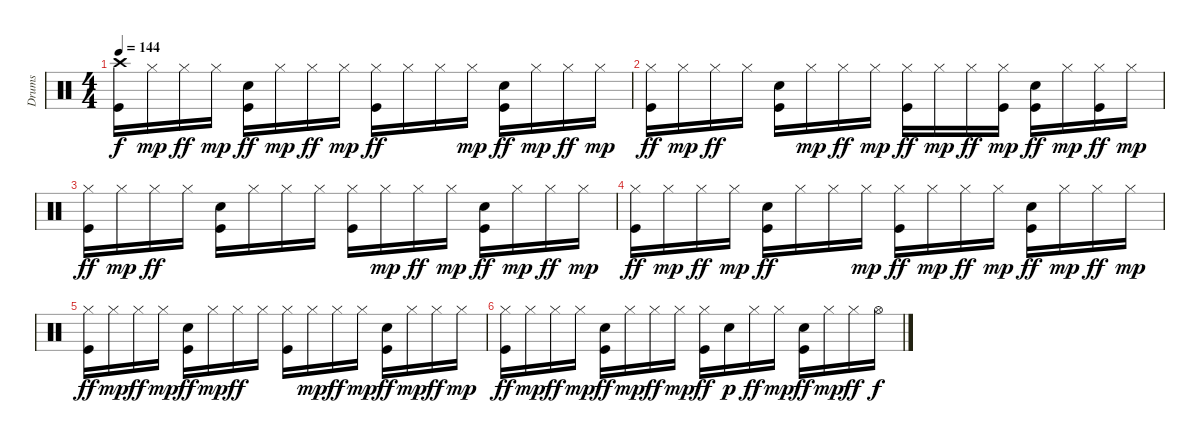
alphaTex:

\track ("Drums" "Drums") {instrument percussion}
\staff {score}
\articulation defaults
\ts (4 4)
\tempo 144
\clef neutral
\ks c
("Kick (hit)" "Crash high (hit)").16{dy f} "Hi-Hat (closed)".16{dy mp} "Hi-Hat (closed)".16{dy ff} "Hi-Hat (closed)".16{dy mp} ("Kick (hit)" "Snare (hit) 2").16{dy ff} "Hi-Hat (closed)".16{dy mp} "Hi-Hat (closed)".16{dy ff} "Hi-Hat (closed)".16{dy mp} ("Kick (hit)" "Hi-Hat (closed)").16{dy ff} "Hi-Hat (closed)".16 "Hi-Hat (closed)".16 "Hi-Hat (closed)".16{dy mp} ("Kick (hit)" "Snare (hit) 2").16{dy ff} "Hi-Hat (closed)".16{dy mp} "Hi-Hat (closed)".16{dy ff} "Hi-Hat (closed)".16{dy mp} |
("Kick (hit)" "Hi-Hat (closed)").16{dy ff} "Hi-Hat (closed)".16{dy mp} "Hi-Hat (closed)".16{dy ff} "Hi-Hat (closed)".16 ("Kick (hit)" "Snare (hit) 2").16 "Hi-Hat (closed)".16{dy mp} "Hi-Hat (closed)".16{dy ff} "Hi-Hat (closed)".16{dy mp} ("Kick (hit)" "Hi-Hat (closed)").16{dy ff} "Hi-Hat (closed)".16{dy mp} "Hi-Hat (closed)".16{dy ff} ("Kick (hit)" "Hi-Hat (closed)").16{dy mp} ("Kick (hit)" "Snare (hit) 2").16{dy ff} "Hi-Hat (closed)".16{dy mp} ("Kick (hit)" "Hi-Hat (closed)").16{dy ff} "Hi-Hat (closed)".16{dy mp} |
("Kick (hit)" "Hi-Hat (closed)").16{dy ff} "Hi-Hat (closed)".16{dy mp} "Hi-Hat (closed)".16{dy ff} "Hi-Hat (closed)".16 ("Kick (hit)" "Snare (hit) 2").16 "Hi-Hat (closed)".16 "Hi-Hat (closed)".16 "Hi-Hat (closed)".16 ("Kick (hit)" "Hi-Hat (closed)").16 "Hi-Hat (closed)".16{dy mp} "Hi-Hat (closed)".16{dy ff} "Hi-Hat (closed)".16{dy mp} ("Kick (hit)" "Snare (hit) 2").16{dy ff} "Hi-Hat (closed)".16{dy mp} "Hi-Hat (closed)".16{dy ff} "Hi-Hat (closed)".16{dy mp} |
("Kick (hit)" "Hi-Hat (closed)").16{dy ff} "Hi-Hat (closed)".16{dy mp} "Hi-Hat (closed)".16{dy ff} "Hi-Hat (closed)".16{dy mp} ("Kick (hit)" "Snare (hit) 2").16{dy ff} "Hi-Hat (closed)".16 "Hi-Hat (closed)".16 "Hi-Hat (closed)".16{dy mp} ("Kick (hit)" "Hi-Hat (closed)").16{dy ff} "Hi-Hat (closed)".16{dy mp} "Hi-Hat (closed)".16{dy ff} "Hi-Hat (closed)".16{dy mp} ("Kick (hit)" "Snare (hit) 2").16{dy ff} "Hi-Hat (closed)".16{dy mp} "Hi-Hat (closed)".16{dy ff} "Hi-Hat (closed)".16{dy mp} |
("Kick (hit)" "Hi-Hat (closed)").16{dy ff} "Hi-Hat (closed)".16{dy mp} "Hi-Hat (closed)".16{dy ff} "Hi-Hat (closed)".16{dy mp} ("Kick (hit)" "Snare (hit) 2").16{dy ff} "Hi-Hat (closed)".16{dy mp} "Hi-Hat (closed)".16{dy ff} "Hi-Hat (closed)".16 ("Kick (hit)" "Hi-Hat (closed)").16 "Hi-Hat (closed)".16{dy mp} "Hi-Hat (closed)".16{dy ff} "Hi-Hat (closed)".16{dy mp} ("Kick (hit)" "Snare (hit) 2").16{dy ff} "Hi-Hat (closed)".16{dy mp} "Hi-Hat (closed)".16{dy ff} "Hi-Hat (closed)".16{dy mp} |
("Kick (hit)" "Hi-Hat (closed)").16{dy ff} "Hi-Hat (closed)".16{dy mp} "Hi-Hat (closed)".16{dy ff} "Hi-Hat (closed)".16{dy mp} ("Kick (hit)" "Snare (hit) 2").16{dy ff} "Hi-Hat (closed)".16{dy mp} "Hi-Hat (closed)".16{dy ff} "Hi-Hat (closed)".16{dy mp} ("Kick (hit)" "Hi-Hat (closed)").16{dy ff} "Snare (hit) 2".16{dy p} "Hi-Hat (closed)".16{dy ff} "Hi-Hat (closed)".16{dy mp} ("Kick (hit)" "Snare (hit) 2").16{dy ff} "Hi-Hat (closed)".16{dy mp} "Hi-Hat (closed)".16{dy ff} "Hi-Hat (open)".16{dy f}
